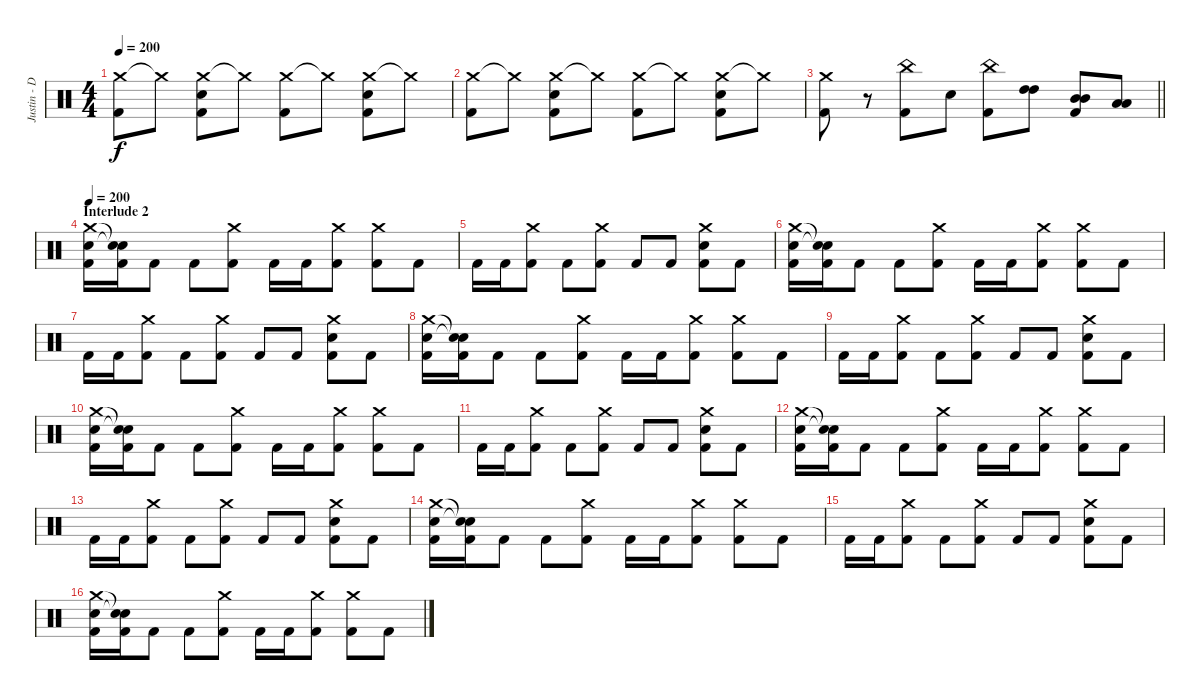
\track ("Justin - Drums" "Justin - D") {instrument percussion}
\staff {score}
\articulation defaults
\ts (4 4)
\tempo 200
\clef neutral
\ks c
("Crash medium (hit)" "Kick (hit) 2").8{dy f} "Crash medium (hit)"{t}.8 ("Crash medium (hit)" "Snare (hit) 2" "Kick (hit) 2").8 "Crash medium (hit)"{t}.8 ("Crash medium (hit)" "Kick (hit) 2").8 "Crash medium (hit)"{t}.8 ("Crash medium (hit)" "Snare (hit) 2" "Kick (hit) 2").8 "Crash medium (hit)"{t}.8 |
("Crash medium (hit)" "Kick (hit) 2").8 "Crash medium (hit)"{t}.8 ("Crash medium (hit)" "Snare (hit) 2" "Kick (hit) 2").8 "Crash medium (hit)"{t}.8 ("Crash medium (hit)" "Kick (hit) 2").8 "Crash medium (hit)"{t}.8 ("Crash medium (hit)" "Snare (hit) 2" "Kick (hit) 2").8 "Crash medium (hit)"{t}.8 |
\barLineRight lightlight
("Crash medium (hit)" "Kick (hit) 2").8 r.8 ("China (hit)" "Kick (hit) 2").8 "Snare (hit) 2".8 ("China (hit)" "Kick (hit) 2").8 ("High Tom (hit)" "High Tom (hit)").8 ("Mid Tom (hit)" "Mid Tom (hit)" "Kick (hit) 2").8 ("Low Tom (hit)" "Low Tom (hit)").8 |
\section ("" "Interlude 2")
\tempo 200
("Crash medium (hit)" "Snare (hit) 2" "Kick (hit) 2").16 ("Snare (hit)"{t} "Snare (hit)"{t} "Kick (hit) 2").16 "Kick (hit) 2".8 "Kick (hit) 2".8 ("Crash medium (hit)" "Kick (hit) 2").8 "Kick (hit) 2".16 "Kick (hit) 2".16 ("Crash medium (hit)" "Kick (hit) 2").8 ("Crash medium (hit)" "Kick (hit) 2").8 "Kick (hit) 2".8 |
"Kick (hit) 2".16 "Kick (hit) 2".16 ("Crash medium (hit)" "Kick (hit) 2").8 "Kick (hit) 2".8 ("Crash medium (hit)" "Kick (hit) 2").8 "Kick (hit) 2".8 "Kick (hit) 2".8 ("Crash medium (hit)" "Snare (hit) 2" "Kick (hit) 2").8 "Kick (hit) 2".8 |
("Crash medium (hit)" "Snare (hit) 2" "Kick (hit) 2").16 ("Snare (hit)"{t} "Snare (hit)"{t} "Kick (hit) 2").16 "Kick (hit) 2".8 "Kick (hit) 2".8 ("Crash medium (hit)" "Kick (hit) 2").8 "Kick (hit) 2".16 "Kick (hit) 2".16 ("Crash medium (hit)" "Kick (hit) 2").8 ("Crash medium (hit)" "Kick (hit) 2").8 "Kick (hit) 2".8 |
"Kick (hit) 2".16 "Kick (hit) 2".16 ("Crash medium (hit)" "Kick (hit) 2").8 "Kick (hit) 2".8 ("Crash medium (hit)" "Kick (hit) 2").8 "Kick (hit) 2".8 "Kick (hit) 2".8 ("Crash medium (hit)" "Snare (hit) 2" "Kick (hit) 2").8 "Kick (hit) 2".8 |
("Crash medium (hit)" "Snare (hit) 2" "Kick (hit) 2").16 ("Snare (hit)"{t} "Snare (hit)"{t} "Kick (hit) 2").16 "Kick (hit) 2".8 "Kick (hit) 2".8 ("Crash medium (hit)" "Kick (hit) 2").8 "Kick (hit) 2".16 "Kick (hit) 2".16 ("Crash medium (hit)" "Kick (hit) 2").8 ("Crash medium (hit)" "Kick (hit) 2").8 "Kick (hit) 2".8 |
"Kick (hit) 2".16 "Kick (hit) 2".16 ("Crash medium (hit)" "Kick (hit) 2").8 "Kick (hit) 2".8 ("Crash medium (hit)" "Kick (hit) 2").8 "Kick (hit) 2".8 "Kick (hit) 2".8 ("Crash medium (hit)" "Snare (hit) 2" "Kick (hit) 2").8 "Kick (hit) 2".8 |
("Crash medium (hit)" "Snare (hit) 2" "Kick (hit) 2").16 ("Snare (hit)"{t} "Snare (hit)"{t} "Kick (hit) 2").16 "Kick (hit) 2".8 "Kick (hit) 2".8 ("Crash medium (hit)" "Kick (hit) 2").8 "Kick (hit) 2".16 "Kick (hit) 2".16 ("Crash medium (hit)" "Kick (hit) 2").8 ("Crash medium (hit)" "Kick (hit) 2").8 "Kick (hit) 2".8 |
"Kick (hit) 2".16 "Kick (hit) 2".16 ("Crash medium (hit)" "Kick (hit) 2").8 "Kick (hit) 2".8 ("Crash medium (hit)" "Kick (hit) 2").8 "Kick (hit) 2".8 "Kick (hit) 2".8 ("Crash medium (hit)" "Snare (hit) 2" "Kick (hit) 2").8 "Kick (hit) 2".8 |
("Crash medium (hit)" "Snare (hit) 2" "Kick (hit) 2").16 ("Snare (hit)"{t} "Snare (hit)"{t} "Kick (hit) 2").16 "Kick (hit) 2".8 "Kick (hit) 2".8 ("Crash medium (hit)" "Kick (hit) 2").8 "Kick (hit) 2".16 "Kick (hit) 2".16 ("Crash medium (hit)" "Kick (hit) 2").8 ("Crash medium (hit)" "Kick (hit) 2").8 "Kick (hit) 2".8 |
"Kick (hit) 2".16 "Kick (hit) 2".16 ("Crash medium (hit)" "Kick (hit) 2").8 "Kick (hit) 2".8 ("Crash medium (hit)" "Kick (hit) 2").8 "Kick (hit) 2".8 "Kick (hit) 2".8 ("Crash medium (hit)" "Snare (hit) 2" "Kick (hit) 2").8 "Kick (hit) 2".8 |
("Crash medium (hit)" "Snare (hit) 2" "Kick (hit) 2").16 ("Snare (hit)"{t} "Snare (hit)"{t} "Kick (hit) 2").16 "Kick (hit) 2".8 "Kick (hit) 2".8 ("Crash medium (hit)" "Kick (hit) 2").8 "Kick (hit) 2".16 "Kick (hit) 2".16 ("Crash medium (hit)" "Kick (hit) 2").8 ("Crash medium (hit)" "Kick (hit) 2").8 "Kick (hit) 2".8 |
"Kick (hit) 2".16 "Kick (hit) 2".16 ("Crash medium (hit)" "Kick (hit) 2").8 "Kick (hit) 2".8 ("Crash medium (hit)" "Kick (hit) 2").8 "Kick (hit) 2".8 "Kick (hit) 2".8 ("Crash medium (hit)" "Snare (hit) 2" "Kick (hit) 2").8 "Kick (hit) 2".8 |
("Crash medium (hit)" "Snare (hit) 2" "Kick (hit) 2").16 ("Snare (hit)"{t} "Snare (hit)"{t} "Kick (hit) 2").16 "Kick (hit) 2".8 "Kick (hit) 2".8 ("Crash medium (hit)" "Kick (hit) 2").8 "Kick (hit) 2".16 "Kick (hit) 2".16 ("Crash medium (hit)" "Kick (hit) 2").8 ("Crash medium (hit)" "Kick (hit) 2").8 "Kick (hit) 2".8
